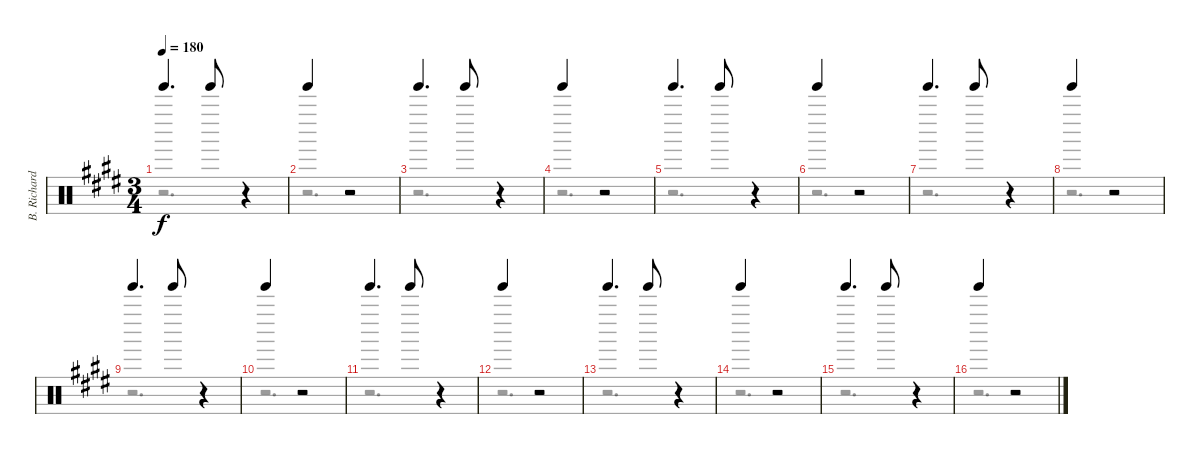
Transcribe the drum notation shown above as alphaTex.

\track ("B. Richardson Percussion" "B. Richard") {instrument percussion}
\staff {score}
\articulation defaults
\voice
\ts (3 4)
\tempo 180
\clef neutral
\ks c#minor "Tinkle Bell (hit)".4{d dy f} "Tinkle Bell (hit)".8
r.4 |
"Tinkle Bell (hit)".4 r.2 |
"Tinkle Bell (hit)".4{d} "Tinkle Bell (hit)".8 r.4 |
"Tinkle Bell (hit)".4 r.2 |
"Tinkle Bell (hit)".4{d} "Tinkle Bell (hit)".8 r.4 |
"Tinkle Bell (hit)".4 r.2 |
"Tinkle Bell (hit)".4{d} "Tinkle Bell (hit)".8 r.4 |
"Tinkle Bell (hit)".4 r.2 |
"Tinkle Bell (hit)".4{d} "Tinkle Bell (hit)".8 r.4 |
"Tinkle Bell (hit)".4 r.2 |
"Tinkle Bell (hit)".4{d} "Tinkle Bell (hit)".8 r.4 |
"Tinkle Bell (hit)".4 r.2 |
"Tinkle Bell (hit)".4{d} "Tinkle Bell (hit)".8 r.4 |
"Tinkle Bell (hit)".4 r.2 |
"Tinkle Bell (hit)".4{d} "Tinkle Bell (hit)".8 r.4 |
"Tinkle Bell (hit)".4 r.2
\voice
\clef neutral
\ottava regular
\simile none
\ks c#minor
r.2{d dy f} |
r.2{d} |
r.2{d} |
r.2{d} |
r.2{d} |
r.2{d} |
r.2{d} |
r.2{d} |
r.2{d} |
r.2{d} |
r.2{d} |
r.2{d} |
r.2{d} |
r.2{d} |
r.2{d} |
r.2{d}
